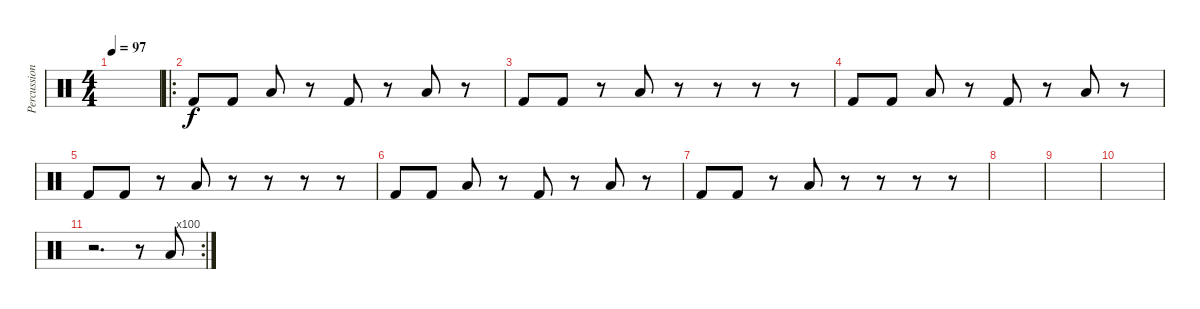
\track ("Percussion" "Percussion") {instrument percussion}
\staff {score}
\articulation defaults
\ts (4 4)
\tempo 97
\clef neutral
\ks c
|
\ro "Kick (hit) 2".8 "Kick (hit) 2".8 "Low Floor Tom (hit)".8
r.8 "Kick (hit) 2".8 r.8 "Low Floor Tom (hit)".8 r.8 |
"Kick (hit) 2".8 "Kick (hit) 2".8 r.8 "Low Floor Tom (hit)".8 r.8 r.8 r.8 r.8 |
"Kick (hit) 2".8 "Kick (hit) 2".8 "Low Floor Tom (hit)".8 r.8 "Kick (hit) 2".8 r.8 "Low Floor Tom (hit)".8 r.8 |
"Kick (hit) 2".8 "Kick (hit) 2".8 r.8 "Low Floor Tom (hit)".8 r.8 r.8 r.8 r.8 |
"Kick (hit) 2".8 "Kick (hit) 2".8 "Low Floor Tom (hit)".8 r.8 "Kick (hit) 2".8 r.8 "Low Floor Tom (hit)".8 r.8 |
"Kick (hit) 2".8 "Kick (hit) 2".8 r.8 "Low Floor Tom (hit)".8 r.8 r.8 r.8 r.8 |
|
|
|
\rc 100
r.2{d} r.8 "Low Floor Tom (hit)".8
